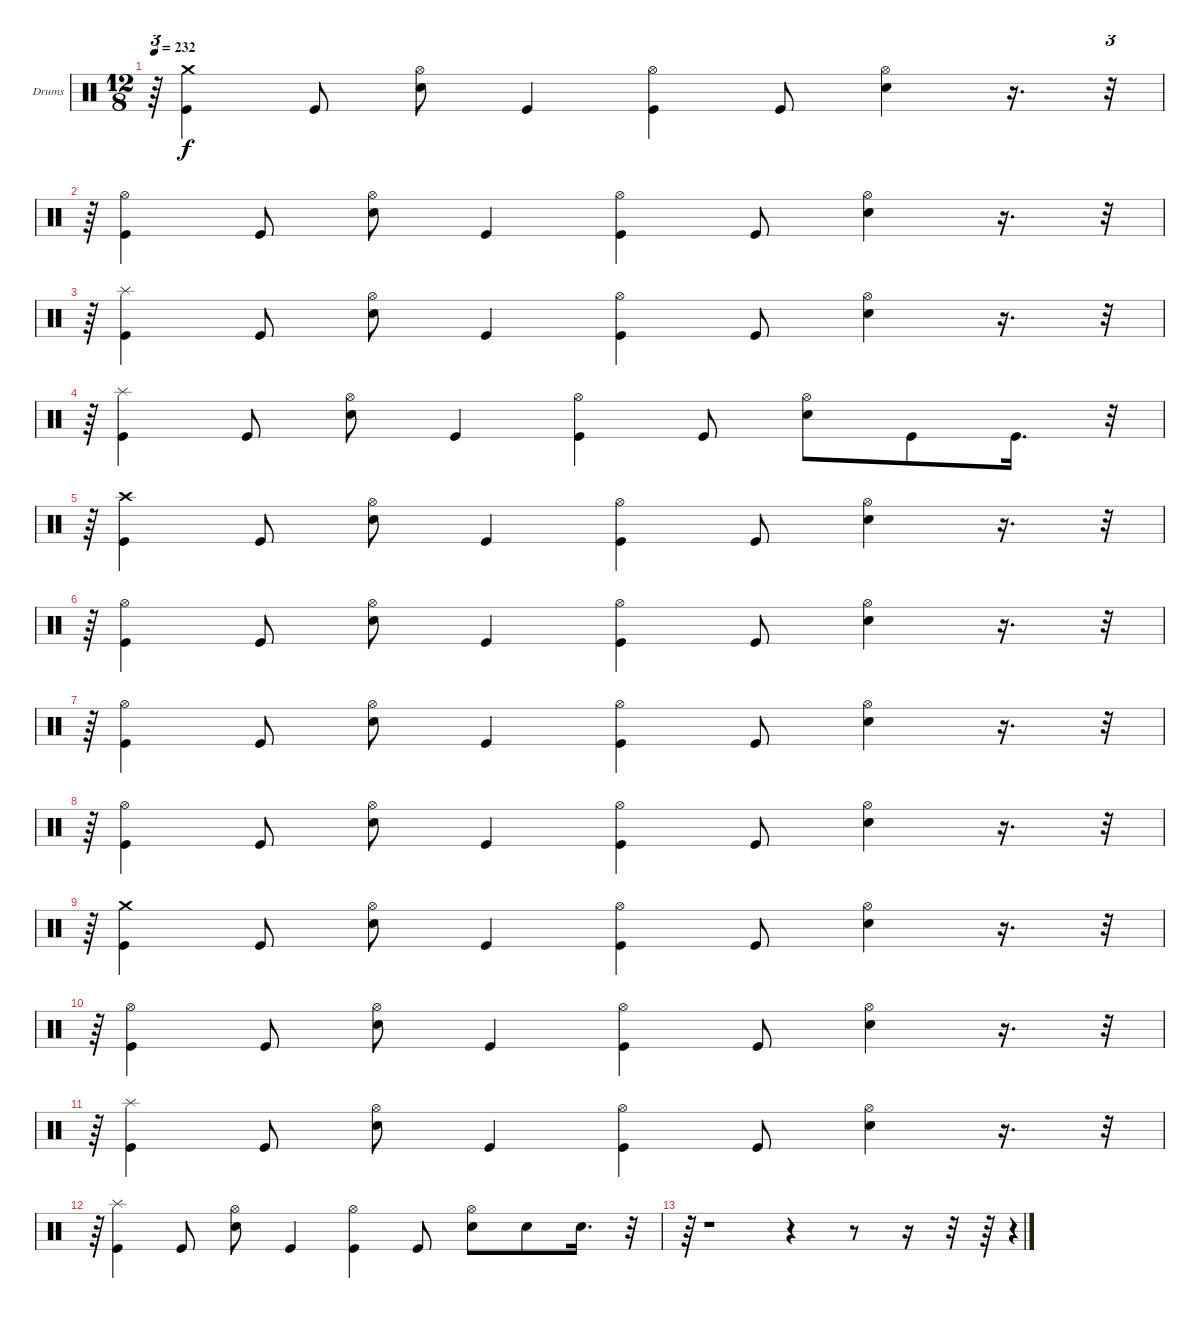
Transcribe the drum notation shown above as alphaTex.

\bracketExtendMode groupsimilarinstruments
\firstSystemTrackNameOrientation horizontal
\otherSystemsTrackNameOrientation horizontal
\track ("Ударные" "Drums") {instrument percussion}
\staff {score}
\articulation defaults
\ts (12 8)
\tempo 232
\clef neutral
\ks c
r.64{tu (3 2) dy f} ("Kick (hit)" "Crash medium (hit)").4 "Kick (hit)".8 ("Snare (hit) 2" "Hi-Hat (open)").8 "Kick (hit)".4 ("Kick (hit)" "Hi-Hat (open)").4 "Kick (hit)".8 ("Snare (hit) 2" "Hi-Hat (open)").4 r.16{d} r.32{tu (3 2)} |
r.64{tu (3 2)} ("Hi-Hat (open)" "Kick (hit)").4 "Kick (hit)".8 ("Hi-Hat (open)" "Snare (hit) 2").8 "Kick (hit)".4 ("Hi-Hat (open)" "Kick (hit)").4 "Kick (hit)".8 ("Hi-Hat (open)" "Snare (hit) 2").4 r.16{d} r.32{tu (3 2)} |
r.64{tu (3 2)} ("Splash (hit)" "Kick (hit)").4 "Kick (hit)".8 ("Hi-Hat (open)" "Snare (hit) 2").8 "Kick (hit)".4 ("Hi-Hat (open)" "Kick (hit)").4 "Kick (hit)".8 ("Hi-Hat (open)" "Snare (hit) 2").4 r.16{d} r.32{tu (3 2)} |
r.64{tu (3 2)} ("Splash (hit)" "Kick (hit)").4 "Kick (hit)".8 ("Hi-Hat (open)" "Snare (hit) 2").8 "Kick (hit)".4 ("Hi-Hat (open)" "Kick (hit)").4 "Kick (hit)".8 ("Snare (hit) 2" "Hi-Hat (open)").8 "Kick (hit)".8 "Kick (hit)".16{d} r.32{tu (3 2)} |
r.64{tu (3 2)} ("Kick (hit)" "Crash high (hit)").4 "Kick (hit)".8 ("Snare (hit) 2" "Hi-Hat (open)").8 "Kick (hit)".4 ("Kick (hit)" "Hi-Hat (open)").4 "Kick (hit)".8 ("Snare (hit) 2" "Hi-Hat (open)").4 r.16{d} r.32{tu (3 2)} |
r.64{tu (3 2)} ("Hi-Hat (open)" "Kick (hit)").4 "Kick (hit)".8 ("Hi-Hat (open)" "Snare (hit) 2").8 "Kick (hit)".4 ("Hi-Hat (open)" "Kick (hit)").4 "Kick (hit)".8 ("Hi-Hat (open)" "Snare (hit) 2").4 r.16{d} r.32{tu (3 2)} |
r.64{tu (3 2)} ("Hi-Hat (open)" "Kick (hit)").4 "Kick (hit)".8 ("Hi-Hat (open)" "Snare (hit) 2").8 "Kick (hit)".4 ("Hi-Hat (open)" "Kick (hit)").4 "Kick (hit)".8 ("Hi-Hat (open)" "Snare (hit) 2").4 r.16{d} r.32{tu (3 2)} |
r.64{tu (3 2)} ("Hi-Hat (open)" "Kick (hit)").4 "Kick (hit)".8 ("Hi-Hat (open)" "Snare (hit) 2").8 "Kick (hit)".4 ("Hi-Hat (open)" "Kick (hit)").4 "Kick (hit)".8 ("Hi-Hat (open)" "Snare (hit) 2").4 r.16{d} r.32{tu (3 2)} |
r.64{tu (3 2)} ("Kick (hit)" "Crash medium (hit)").4 "Kick (hit)".8 ("Snare (hit) 2" "Hi-Hat (open)").8 "Kick (hit)".4 ("Kick (hit)" "Hi-Hat (open)").4 "Kick (hit)".8 ("Snare (hit) 2" "Hi-Hat (open)").4 r.16{d} r.32{tu (3 2)} |
r.64{tu (3 2)} ("Hi-Hat (open)" "Kick (hit)").4 "Kick (hit)".8 ("Hi-Hat (open)" "Snare (hit) 2").8 "Kick (hit)".4 ("Hi-Hat (open)" "Kick (hit)").4 "Kick (hit)".8 ("Hi-Hat (open)" "Snare (hit) 2").4 r.16{d} r.32{tu (3 2)} |
r.64{tu (3 2)} ("Splash (hit)" "Kick (hit)").4 "Kick (hit)".8 ("Hi-Hat (open)" "Snare (hit) 2").8 "Kick (hit)".4 ("Hi-Hat (open)" "Kick (hit)").4 "Kick (hit)".8 ("Hi-Hat (open)" "Snare (hit) 2").4 r.16{d} r.32{tu (3 2)} |
r.64{tu (3 2)} ("Splash (hit)" "Kick (hit)").4 "Kick (hit)".8 ("Hi-Hat (open)" "Snare (hit) 2").8 "Kick (hit)".4 ("Hi-Hat (open)" "Kick (hit)").4 "Kick (hit)".8 ("Snare (hit) 2" "Hi-Hat (open)").8 "Snare (hit) 2".8 "Snare (hit) 2".16{d} r.32{tu (3 2)} |
r.64{tu (3 2)} r.1 r.4 r.8 r.16 r.32 r.64 r.4{tu (48 1)}
